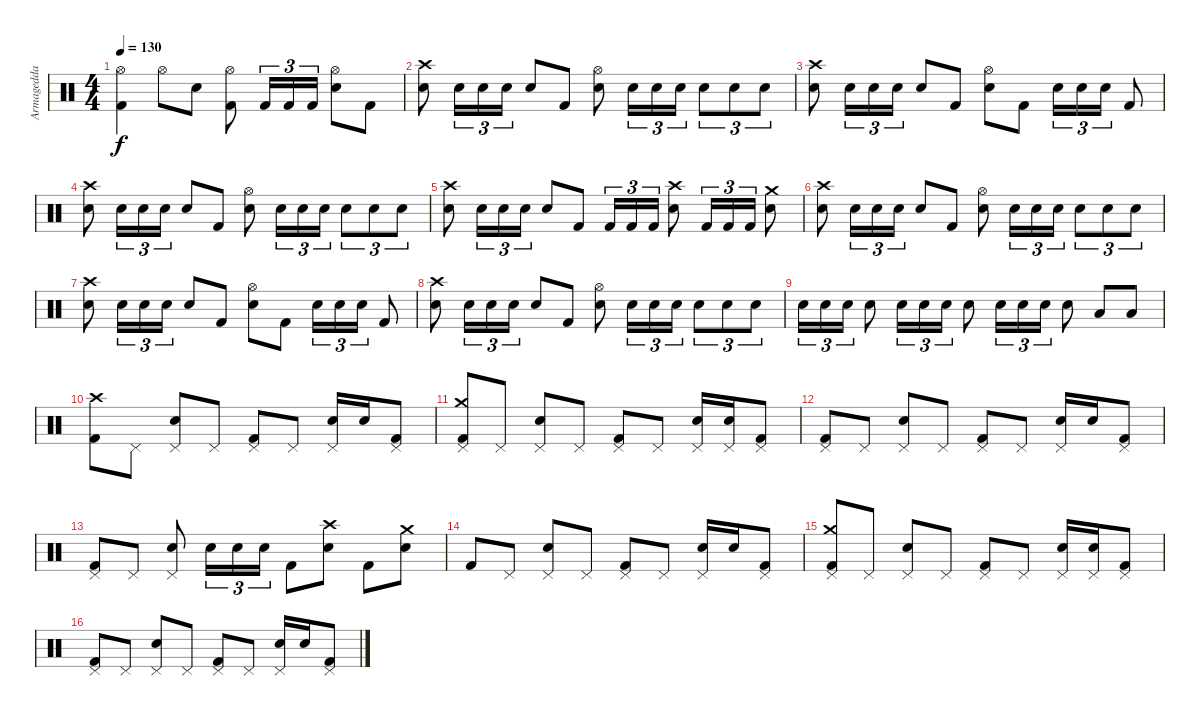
\track ("Armagedda" "Armagedda") {instrument percussion}
\staff {score}
\articulation defaults
\ts (4 4)
\tempo 130
\clef neutral
\ks c
("Hi-Hat (open)" "Kick (hit) 2").4{dy f} "Hi-Hat (open)".8 "Electric Snare (hit)".8 ("Hi-Hat (open)" "Kick (hit) 2").8 "Kick (hit) 2".16{tu (3 2)} "Kick (hit) 2".16{tu (3 2)} "Kick (hit) 2".16{tu (3 2)} ("Hi-Hat (open)" "Electric Snare (hit)").8 "Kick (hit) 2".8 |
("Crash high (hit)" "Electric Snare (hit)").8 "Electric Snare (hit)".16{tu (3 2)} "Electric Snare (hit)".16{tu (3 2)} "Electric Snare (hit)".16{tu (3 2)} "Electric Snare (hit)".8 "Kick (hit) 2".8 ("Hi-Hat (open)" "Electric Snare (hit)").8 "Electric Snare (hit)".16{tu (3 2)} "Electric Snare (hit)".16{tu (3 2)} "Electric Snare (hit)".16{tu (3 2)} "Electric Snare (hit)".8{tu (3 2)} "Electric Snare (hit)".8{tu (3 2)} "Electric Snare (hit)".8{tu (3 2)} |
("Crash high (hit)" "Electric Snare (hit)").8 "Electric Snare (hit)".16{tu (3 2)} "Electric Snare (hit)".16{tu (3 2)} "Electric Snare (hit)".16{tu (3 2)} "Electric Snare (hit)".8 "Kick (hit) 2".8 ("Hi-Hat (open)" "Electric Snare (hit)").8 "Kick (hit) 2".8 "Electric Snare (hit)".16{tu (3 2)} "Electric Snare (hit)".16{tu (3 2)} "Electric Snare (hit)".16{tu (3 2)} "Kick (hit) 2".8 |
("Crash high (hit)" "Electric Snare (hit)").8 "Electric Snare (hit)".16{tu (3 2)} "Electric Snare (hit)".16{tu (3 2)} "Electric Snare (hit)".16{tu (3 2)} "Electric Snare (hit)".8 "Kick (hit) 2".8 ("Hi-Hat (open)" "Electric Snare (hit)").8 "Electric Snare (hit)".16{tu (3 2)} "Electric Snare (hit)".16{tu (3 2)} "Electric Snare (hit)".16{tu (3 2)} "Electric Snare (hit)".8{tu (3 2)} "Electric Snare (hit)".8{tu (3 2)} "Electric Snare (hit)".8{tu (3 2)} |
("Crash high (hit)" "Electric Snare (hit)").8 "Electric Snare (hit)".16{tu (3 2)} "Electric Snare (hit)".16{tu (3 2)} "Electric Snare (hit)".16{tu (3 2)} "Electric Snare (hit)".8 "Kick (hit) 2".8 "Kick (hit) 2".16{tu (3 2)} "Kick (hit) 2".16{tu (3 2)} "Kick (hit) 2".16{tu (3 2)} ("Crash high (hit)" "Electric Snare (hit)").8 "Kick (hit) 2".16{tu (3 2)} "Kick (hit) 2".16{tu (3 2)} "Kick (hit) 2".16{tu (3 2)} ("Crash medium (hit)" "Electric Snare (hit)").8 |
("Crash high (hit)" "Electric Snare (hit)").8 "Electric Snare (hit)".16{tu (3 2)} "Electric Snare (hit)".16{tu (3 2)} "Electric Snare (hit)".16{tu (3 2)} "Electric Snare (hit)".8 "Kick (hit) 2".8 ("Hi-Hat (open)" "Electric Snare (hit)").8 "Electric Snare (hit)".16{tu (3 2)} "Electric Snare (hit)".16{tu (3 2)} "Electric Snare (hit)".16{tu (3 2)} "Electric Snare (hit)".8{tu (3 2)} "Electric Snare (hit)".8{tu (3 2)} "Electric Snare (hit)".8{tu (3 2)} |
("Crash high (hit)" "Electric Snare (hit)").8 "Electric Snare (hit)".16{tu (3 2)} "Electric Snare (hit)".16{tu (3 2)} "Electric Snare (hit)".16{tu (3 2)} "Electric Snare (hit)".8 "Kick (hit) 2".8 ("Hi-Hat (open)" "Electric Snare (hit)").8 "Kick (hit) 2".8 "Electric Snare (hit)".16{tu (3 2)} "Electric Snare (hit)".16{tu (3 2)} "Electric Snare (hit)".16{tu (3 2)} "Kick (hit) 2".8 |
("Crash high (hit)" "Electric Snare (hit)").8 "Electric Snare (hit)".16{tu (3 2)} "Electric Snare (hit)".16{tu (3 2)} "Electric Snare (hit)".16{tu (3 2)} "Electric Snare (hit)".8 "Kick (hit) 2".8 ("Hi-Hat (open)" "Electric Snare (hit)").8 "Electric Snare (hit)".16{tu (3 2)} "Electric Snare (hit)".16{tu (3 2)} "Electric Snare (hit)".16{tu (3 2)} "Electric Snare (hit)".8{tu (3 2)} "Electric Snare (hit)".8{tu (3 2)} "Electric Snare (hit)".8{tu (3 2)} |
"Electric Snare (hit)".16{tu (3 2)} "Electric Snare (hit)".16{tu (3 2)} "Electric Snare (hit)".16{tu (3 2)} "Electric Snare (hit)".8 "Electric Snare (hit)".16{tu (3 2)} "Electric Snare (hit)".16{tu (3 2)} "Electric Snare (hit)".16{tu (3 2)} "Electric Snare (hit)".8 "Electric Snare (hit)".16{tu (3 2)} "Electric Snare (hit)".16{tu (3 2)} "Electric Snare (hit)".16{tu (3 2)} "Electric Snare (hit)".8 "Low Tom (hit)".8 "Low Floor Tom (hit)".8 |
("Crash high (hit)" "Kick (hit) 2").8 "Pedal Hi-Hat (hit)".8 ("Pedal Hi-Hat (hit)" "Electric Snare (hit)").8 "Pedal Hi-Hat (hit)".8 ("Pedal Hi-Hat (hit)" "Kick (hit) 2").8 "Pedal Hi-Hat (hit)".8 ("Pedal Hi-Hat (hit)" "Electric Snare (hit)").16 "Electric Snare (hit)".16 ("Pedal Hi-Hat (hit)" "Kick (hit) 2").8 |
("Crash medium (hit)" "Pedal Hi-Hat (hit)" "Kick (hit) 2").8 "Pedal Hi-Hat (hit)".8 ("Pedal Hi-Hat (hit)" "Electric Snare (hit)").8 "Pedal Hi-Hat (hit)".8 ("Pedal Hi-Hat (hit)" "Kick (hit) 2").8 "Pedal Hi-Hat (hit)".8 ("Pedal Hi-Hat (hit)" "Electric Snare (hit)").16 ("Pedal Hi-Hat (hit)" "Electric Snare (hit)").16 ("Pedal Hi-Hat (hit)" "Kick (hit) 2").8 |
("Pedal Hi-Hat (hit)" "Kick (hit) 2").8 "Pedal Hi-Hat (hit)".8 ("Pedal Hi-Hat (hit)" "Electric Snare (hit)").8 "Pedal Hi-Hat (hit)".8 ("Pedal Hi-Hat (hit)" "Kick (hit) 2").8 "Pedal Hi-Hat (hit)".8 ("Pedal Hi-Hat (hit)" "Electric Snare (hit)").16 "Electric Snare (hit)".16 ("Pedal Hi-Hat (hit)" "Kick (hit) 2").8 |
("Pedal Hi-Hat (hit)" "Kick (hit) 2").8 "Pedal Hi-Hat (hit)".8 ("Pedal Hi-Hat (hit)" "Electric Snare (hit)").8 "Electric Snare (hit)".16{tu (3 2)} "Electric Snare (hit)".16{tu (3 2)} "Electric Snare (hit)".16{tu (3 2)} "Kick (hit) 2".8 ("Crash high (hit)" "Electric Snare (hit)").8 "Kick (hit) 2".8 ("Crash medium (hit)" "Electric Snare (hit)").8 |
"Kick (hit) 2".8 "Pedal Hi-Hat (hit)".8 ("Pedal Hi-Hat (hit)" "Electric Snare (hit)").8 "Pedal Hi-Hat (hit)".8 ("Pedal Hi-Hat (hit)" "Kick (hit) 2").8 "Pedal Hi-Hat (hit)".8 ("Pedal Hi-Hat (hit)" "Electric Snare (hit)").16 "Electric Snare (hit)".16 ("Pedal Hi-Hat (hit)" "Kick (hit) 2").8 |
("Crash medium (hit)" "Pedal Hi-Hat (hit)" "Kick (hit) 2").8 "Pedal Hi-Hat (hit)".8 ("Pedal Hi-Hat (hit)" "Electric Snare (hit)").8 "Pedal Hi-Hat (hit)".8 ("Pedal Hi-Hat (hit)" "Kick (hit) 2").8 "Pedal Hi-Hat (hit)".8 ("Pedal Hi-Hat (hit)" "Electric Snare (hit)").16 ("Pedal Hi-Hat (hit)" "Electric Snare (hit)").16 ("Pedal Hi-Hat (hit)" "Kick (hit) 2").8 |
("Pedal Hi-Hat (hit)" "Kick (hit) 2").8 "Pedal Hi-Hat (hit)".8 ("Pedal Hi-Hat (hit)" "Electric Snare (hit)").8 "Pedal Hi-Hat (hit)".8 ("Pedal Hi-Hat (hit)" "Kick (hit) 2").8 "Pedal Hi-Hat (hit)".8 ("Pedal Hi-Hat (hit)" "Electric Snare (hit)").16 "Electric Snare (hit)".16 ("Pedal Hi-Hat (hit)" "Kick (hit) 2").8
